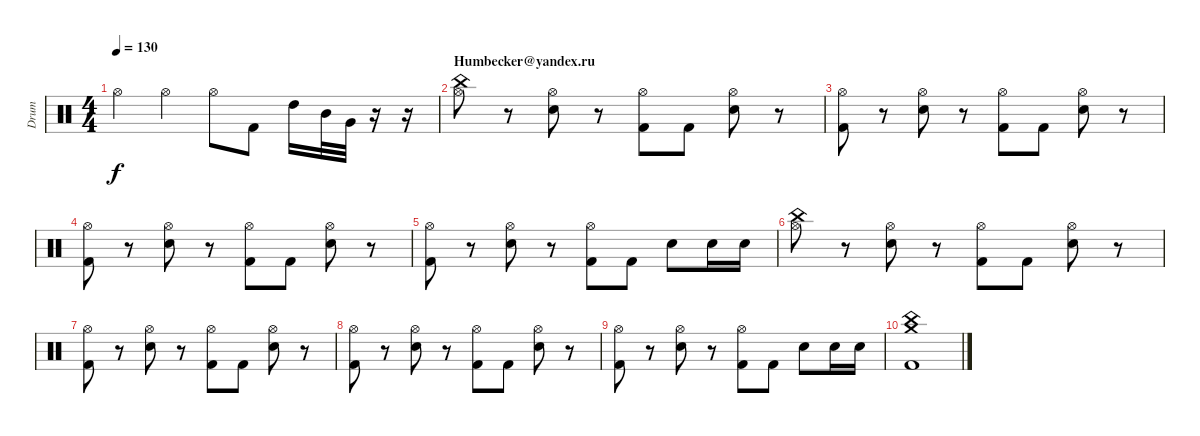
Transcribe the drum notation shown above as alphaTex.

\track ("Drum" "Drum") {instrument percussion}
\staff {score}
\articulation defaults
\ts (4 4)
\tempo 130
\clef neutral
\ks c "Hi-Hat (open)".4{dy f} "Hi-Hat (open)".4 "Hi-Hat (open)".8 "Kick (hit) 2".8 "High Tom (hit)".16 "Mid Tom (hit)".32 "Very Low Tom (hit)".32
r.16 r.16 |
\section ("" "Humbecker@yandex.ru")
("Hi-Hat (open)" "China (hit)").8 r.8 ("Hi-Hat (open)" "Electric Snare (hit)").8 r.8 ("Hi-Hat (open)" "Kick (hit) 2").8 "Kick (hit) 2".8 ("Hi-Hat (open)" "Electric Snare (hit)").8 r.8 |
("Hi-Hat (open)" "Kick (hit) 2").8 r.8 ("Hi-Hat (open)" "Electric Snare (hit)").8 r.8 ("Hi-Hat (open)" "Kick (hit) 2").8 "Kick (hit) 2".8 ("Hi-Hat (open)" "Electric Snare (hit)").8 r.8 |
("Hi-Hat (open)" "Kick (hit) 2").8 r.8 ("Hi-Hat (open)" "Electric Snare (hit)").8 r.8 ("Hi-Hat (open)" "Kick (hit) 2").8 "Kick (hit) 2".8 ("Hi-Hat (open)" "Electric Snare (hit)").8 r.8 |
("Hi-Hat (open)" "Kick (hit) 2").8 r.8 ("Hi-Hat (open)" "Electric Snare (hit)").8 r.8 ("Hi-Hat (open)" "Kick (hit) 2").8 "Kick (hit) 2".8 "Electric Snare (hit)".8 "Electric Snare (hit)".16 "Electric Snare (hit)".16 |
("Hi-Hat (open)" "China (hit)").8 r.8 ("Hi-Hat (open)" "Electric Snare (hit)").8 r.8 ("Hi-Hat (open)" "Kick (hit) 2").8 "Kick (hit) 2".8 ("Hi-Hat (open)" "Electric Snare (hit)").8 r.8 |
("Hi-Hat (open)" "Kick (hit) 2").8 r.8 ("Hi-Hat (open)" "Electric Snare (hit)").8 r.8 ("Hi-Hat (open)" "Kick (hit) 2").8 "Kick (hit) 2".8 ("Hi-Hat (open)" "Electric Snare (hit)").8 r.8 |
("Hi-Hat (open)" "Kick (hit) 2").8 r.8 ("Hi-Hat (open)" "Electric Snare (hit)").8 r.8 ("Hi-Hat (open)" "Kick (hit) 2").8 "Kick (hit) 2".8 ("Hi-Hat (open)" "Electric Snare (hit)").8 r.8 |
("Hi-Hat (open)" "Kick (hit) 2").8 r.8 ("Hi-Hat (open)" "Electric Snare (hit)").8 r.8 ("Hi-Hat (open)" "Kick (hit) 2").8 "Kick (hit) 2".8 "Electric Snare (hit)".8 "Electric Snare (hit)".16 "Electric Snare (hit)".16 |
("Kick (hit) 2" "China (hit)" "Crash medium (hit)").1
